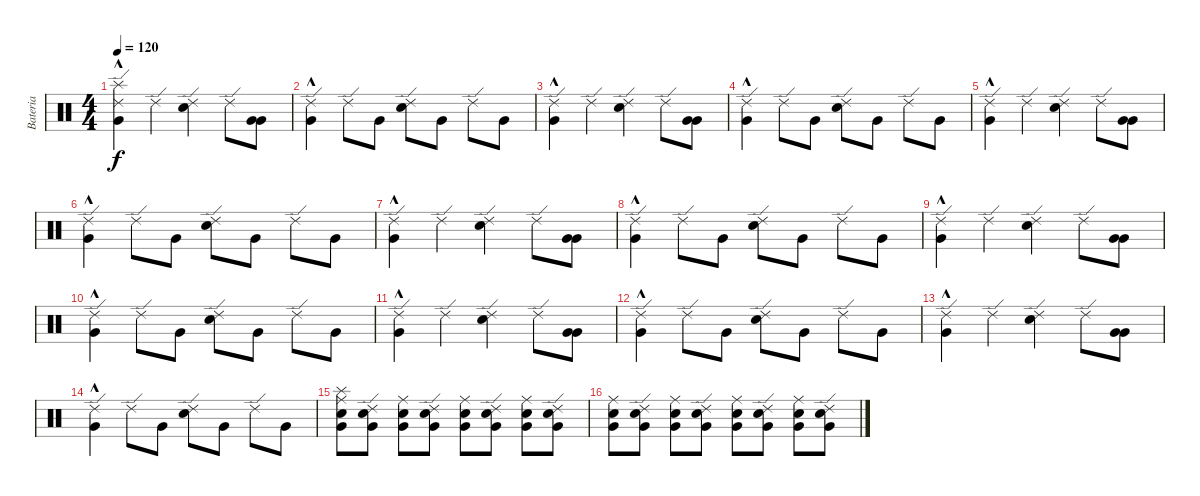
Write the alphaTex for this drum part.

\track ("Bateria" "Bateria") {instrument percussion}
\staff {score}
\articulation defaults
\ts (4 4)
\tempo 120
\clef neutral
\ks c
("Splash (hit)" "Ride (edge) 2" "Very Low Tom (hit)"{hac}).4{dy f} "Ride (edge) 2".4 ("Ride (edge) 2" "Snare (hit) 2").4 "Ride (edge) 2".8 ("Very Low Tom (hit)" "Very Low Tom (hit)").8 |
("Ride (edge) 2" "Very Low Tom (hit)"{hac}).4 "Ride (edge) 2".8 "Very Low Tom (hit)".8 ("Snare (hit) 2" "Ride (edge) 2").8 "Very Low Tom (hit)".8 "Ride (edge) 2".8 "Very Low Tom (hit)".8 |
("Ride (edge) 2" "Very Low Tom (hit)"{hac}).4 "Ride (edge) 2".4 ("Ride (edge) 2" "Snare (hit) 2").4 "Ride (edge) 2".8 ("Very Low Tom (hit)" "Very Low Tom (hit)").8 |
("Ride (edge) 2" "Very Low Tom (hit)"{hac}).4 "Ride (edge) 2".8 "Very Low Tom (hit)".8 ("Snare (hit) 2" "Ride (edge) 2").8 "Very Low Tom (hit)".8 "Ride (edge) 2".8 "Very Low Tom (hit)".8 |
("Ride (edge) 2" "Very Low Tom (hit)"{hac}).4 "Ride (edge) 2".4 ("Ride (edge) 2" "Snare (hit) 2").4 "Ride (edge) 2".8 ("Very Low Tom (hit)" "Very Low Tom (hit)").8 |
("Ride (edge) 2" "Very Low Tom (hit)"{hac}).4 "Ride (edge) 2".8 "Very Low Tom (hit)".8 ("Snare (hit) 2" "Ride (edge) 2").8 "Very Low Tom (hit)".8 "Ride (edge) 2".8 "Very Low Tom (hit)".8 |
("Ride (edge) 2" "Very Low Tom (hit)"{hac}).4 "Ride (edge) 2".4 ("Ride (edge) 2" "Snare (hit) 2").4 "Ride (edge) 2".8 ("Very Low Tom (hit)" "Very Low Tom (hit)").8 |
("Ride (edge) 2" "Very Low Tom (hit)"{hac}).4 "Ride (edge) 2".8 "Very Low Tom (hit)".8 ("Snare (hit) 2" "Ride (edge) 2").8 "Very Low Tom (hit)".8 "Ride (edge) 2".8 "Very Low Tom (hit)".8 |
("Ride (edge) 2" "Very Low Tom (hit)"{hac}).4 "Ride (edge) 2".4 ("Ride (edge) 2" "Snare (hit) 2").4 "Ride (edge) 2".8 ("Very Low Tom (hit)" "Very Low Tom (hit)").8 |
("Ride (edge) 2" "Very Low Tom (hit)"{hac}).4 "Ride (edge) 2".8 "Very Low Tom (hit)".8 ("Snare (hit) 2" "Ride (edge) 2").8 "Very Low Tom (hit)".8 "Ride (edge) 2".8 "Very Low Tom (hit)".8 |
("Ride (edge) 2" "Very Low Tom (hit)"{hac}).4 "Ride (edge) 2".4 ("Ride (edge) 2" "Snare (hit) 2").4 "Ride (edge) 2".8 ("Very Low Tom (hit)" "Very Low Tom (hit)").8 |
("Ride (edge) 2" "Very Low Tom (hit)"{hac}).4 "Ride (edge) 2".8 "Very Low Tom (hit)".8 ("Snare (hit) 2" "Ride (edge) 2").8 "Very Low Tom (hit)".8 "Ride (edge) 2".8 "Very Low Tom (hit)".8 |
("Ride (edge) 2" "Very Low Tom (hit)"{hac}).4 "Ride (edge) 2".4 ("Ride (edge) 2" "Snare (hit) 2").4 "Ride (edge) 2".8 ("Very Low Tom (hit)" "Very Low Tom (hit)").8 |
("Ride (edge) 2" "Very Low Tom (hit)"{hac}).4 "Ride (edge) 2".8 "Very Low Tom (hit)".8 ("Snare (hit) 2" "Ride (edge) 2").8 "Very Low Tom (hit)".8 "Ride (edge) 2".8 "Very Low Tom (hit)".8 |
("Splash (hit)" "Ride (middle)" "Snare (hit) 2" "Very Low Tom (hit)").8 ("Ride (edge) 2" "Snare (hit) 2" "Very Low Tom (hit)").8 ("Ride (middle)" "Snare (hit) 2" "Very Low Tom (hit)").8 ("Ride (edge) 2" "Snare (hit) 2" "Very Low Tom (hit)").8 ("Ride (middle)" "Snare (hit) 2" "Very Low Tom (hit)").8 ("Ride (edge) 2" "Snare (hit) 2" "Very Low Tom (hit)").8 ("Ride (middle)" "Snare (hit) 2" "Very Low Tom (hit)").8 ("Ride (edge) 2" "Snare (hit) 2" "Very Low Tom (hit)").8 |
("Ride (middle)" "Snare (hit) 2" "Very Low Tom (hit)").8 ("Ride (edge) 2" "Snare (hit) 2" "Very Low Tom (hit)").8 ("Ride (middle)" "Snare (hit) 2" "Very Low Tom (hit)").8 ("Ride (edge) 2" "Snare (hit) 2" "Very Low Tom (hit)").8 ("Ride (middle)" "Snare (hit) 2" "Very Low Tom (hit)").8 ("Ride (edge) 2" "Snare (hit) 2" "Very Low Tom (hit)").8 ("Ride (middle)" "Snare (hit) 2" "Very Low Tom (hit)").8 ("Ride (edge) 2" "Snare (hit) 2" "Very Low Tom (hit)").8
